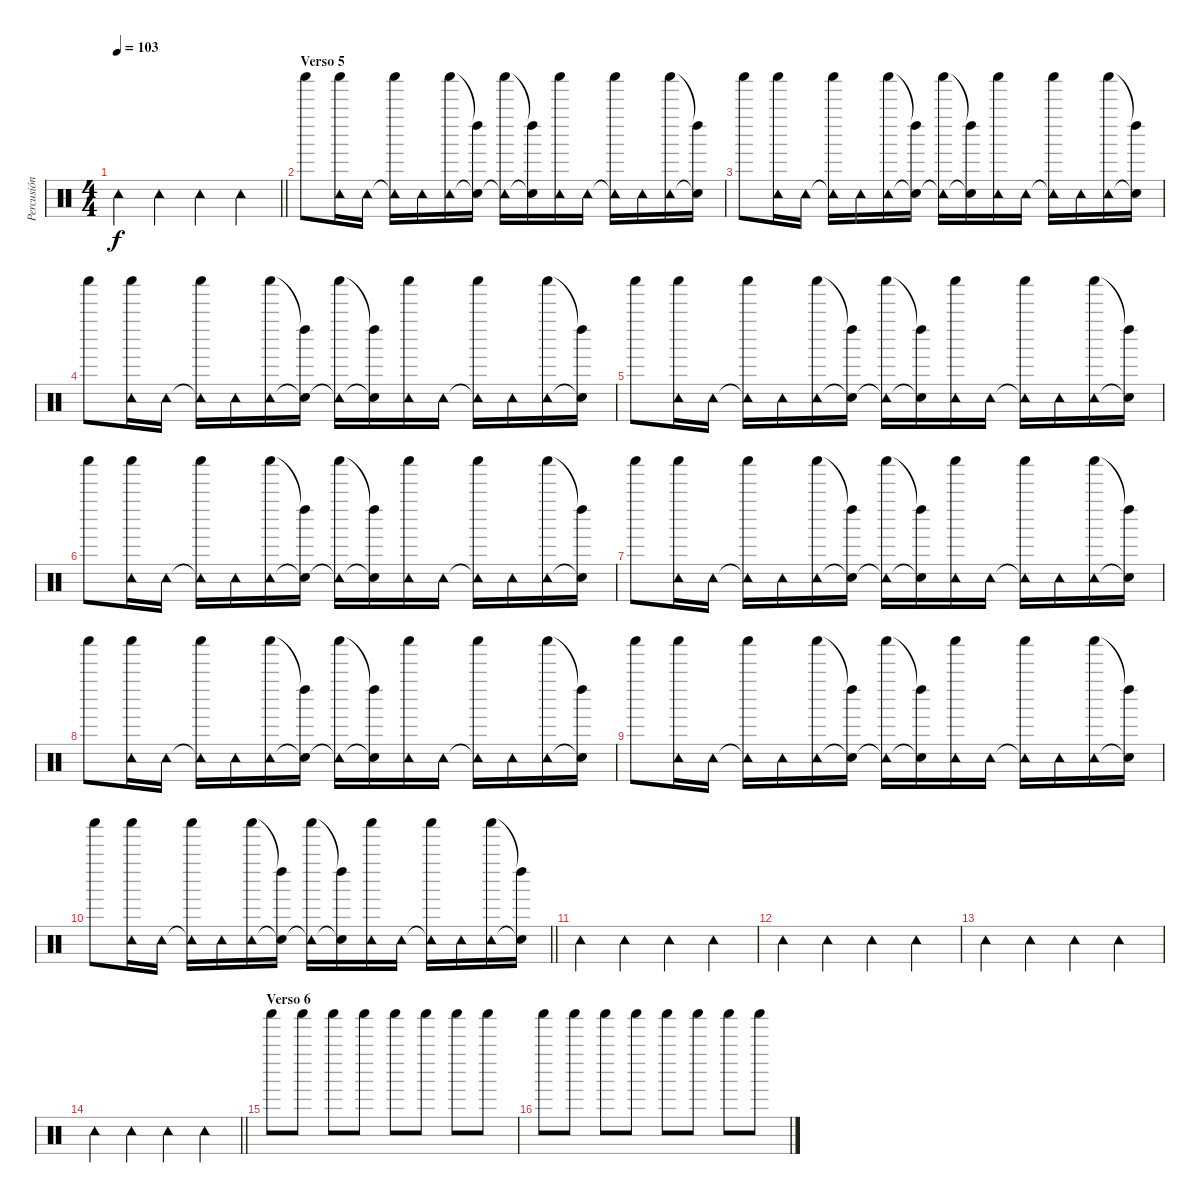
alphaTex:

\track ("Percusión" "Percusión") {instrument percussion}
\staff {score}
\articulation defaults
\ts (4 4)
\tempo 103
\clef neutral
\barLineRight lightlight
\ks c "Tambourine (hit)".4{dy f} "Tambourine (hit)".4 "Tambourine (hit)".4 "Tambourine (hit)".4
|
\section ("" "Verso 5")
"Shaker (hit)".8 ("Tambourine (hit)" "Shaker (hit)").16 "Tambourine (hit)".16 ("Tambourine (hit)"{t} "Shaker (hit)").16 "Tambourine (hit)".16 ("Tambourine (hit)" "Shaker (hit)").16 ("Snare (hit)"{t} "Left Maraca (hit)"{t}).16 ("Tambourine (hit)"{t} "Shaker (hit)").16 ("Snare (hit)"{t} "Left Maraca (hit)"{t}).16 ("Tambourine (hit)" "Shaker (hit)").16 "Tambourine (hit)".16 ("Tambourine (hit)"{t} "Shaker (hit)").16 "Tambourine (hit)".16 ("Tambourine (hit)" "Shaker (hit)").16 ("Snare (hit)"{t} "Left Maraca (hit)"{t}).16 |
"Shaker (hit)".8 ("Tambourine (hit)" "Shaker (hit)").16 "Tambourine (hit)".16 ("Tambourine (hit)"{t} "Shaker (hit)").16 "Tambourine (hit)".16 ("Tambourine (hit)" "Shaker (hit)").16 ("Snare (hit)"{t} "Left Maraca (hit)"{t}).16 ("Tambourine (hit)"{t} "Shaker (hit)").16 ("Snare (hit)"{t} "Left Maraca (hit)"{t}).16 ("Tambourine (hit)" "Shaker (hit)").16 "Tambourine (hit)".16 ("Tambourine (hit)"{t} "Shaker (hit)").16 "Tambourine (hit)".16 ("Tambourine (hit)" "Shaker (hit)").16 ("Snare (hit)"{t} "Left Maraca (hit)"{t}).16 |
"Shaker (hit)".8 ("Tambourine (hit)" "Shaker (hit)").16 "Tambourine (hit)".16 ("Tambourine (hit)"{t} "Shaker (hit)").16 "Tambourine (hit)".16 ("Tambourine (hit)" "Shaker (hit)").16 ("Snare (hit)"{t} "Left Maraca (hit)"{t}).16 ("Tambourine (hit)"{t} "Shaker (hit)").16 ("Snare (hit)"{t} "Left Maraca (hit)"{t}).16 ("Tambourine (hit)" "Shaker (hit)").16 "Tambourine (hit)".16 ("Tambourine (hit)"{t} "Shaker (hit)").16 "Tambourine (hit)".16 ("Tambourine (hit)" "Shaker (hit)").16 ("Snare (hit)"{t} "Left Maraca (hit)"{t}).16 |
"Shaker (hit)".8 ("Tambourine (hit)" "Shaker (hit)").16 "Tambourine (hit)".16 ("Tambourine (hit)"{t} "Shaker (hit)").16 "Tambourine (hit)".16 ("Tambourine (hit)" "Shaker (hit)").16 ("Snare (hit)"{t} "Left Maraca (hit)"{t}).16 ("Tambourine (hit)"{t} "Shaker (hit)").16 ("Snare (hit)"{t} "Left Maraca (hit)"{t}).16 ("Tambourine (hit)" "Shaker (hit)").16 "Tambourine (hit)".16 ("Tambourine (hit)"{t} "Shaker (hit)").16 "Tambourine (hit)".16 ("Tambourine (hit)" "Shaker (hit)").16 ("Snare (hit)"{t} "Left Maraca (hit)"{t}).16 |
"Shaker (hit)".8 ("Tambourine (hit)" "Shaker (hit)").16 "Tambourine (hit)".16 ("Tambourine (hit)"{t} "Shaker (hit)").16 "Tambourine (hit)".16 ("Tambourine (hit)" "Shaker (hit)").16 ("Snare (hit)"{t} "Left Maraca (hit)"{t}).16 ("Tambourine (hit)"{t} "Shaker (hit)").16 ("Snare (hit)"{t} "Left Maraca (hit)"{t}).16 ("Tambourine (hit)" "Shaker (hit)").16 "Tambourine (hit)".16 ("Tambourine (hit)"{t} "Shaker (hit)").16 "Tambourine (hit)".16 ("Tambourine (hit)" "Shaker (hit)").16 ("Snare (hit)"{t} "Left Maraca (hit)"{t}).16 |
"Shaker (hit)".8 ("Tambourine (hit)" "Shaker (hit)").16 "Tambourine (hit)".16 ("Tambourine (hit)"{t} "Shaker (hit)").16 "Tambourine (hit)".16 ("Tambourine (hit)" "Shaker (hit)").16 ("Snare (hit)"{t} "Left Maraca (hit)"{t}).16 ("Tambourine (hit)"{t} "Shaker (hit)").16 ("Snare (hit)"{t} "Left Maraca (hit)"{t}).16 ("Tambourine (hit)" "Shaker (hit)").16 "Tambourine (hit)".16 ("Tambourine (hit)"{t} "Shaker (hit)").16 "Tambourine (hit)".16 ("Tambourine (hit)" "Shaker (hit)").16 ("Snare (hit)"{t} "Left Maraca (hit)"{t}).16 |
"Shaker (hit)".8 ("Tambourine (hit)" "Shaker (hit)").16 "Tambourine (hit)".16 ("Tambourine (hit)"{t} "Shaker (hit)").16 "Tambourine (hit)".16 ("Tambourine (hit)" "Shaker (hit)").16 ("Snare (hit)"{t} "Left Maraca (hit)"{t}).16 ("Tambourine (hit)"{t} "Shaker (hit)").16 ("Snare (hit)"{t} "Left Maraca (hit)"{t}).16 ("Tambourine (hit)" "Shaker (hit)").16 "Tambourine (hit)".16 ("Tambourine (hit)"{t} "Shaker (hit)").16 "Tambourine (hit)".16 ("Tambourine (hit)" "Shaker (hit)").16 ("Snare (hit)"{t} "Left Maraca (hit)"{t}).16 |
"Shaker (hit)".8 ("Tambourine (hit)" "Shaker (hit)").16 "Tambourine (hit)".16 ("Tambourine (hit)"{t} "Shaker (hit)").16 "Tambourine (hit)".16 ("Tambourine (hit)" "Shaker (hit)").16 ("Snare (hit)"{t} "Left Maraca (hit)"{t}).16 ("Tambourine (hit)"{t} "Shaker (hit)").16 ("Snare (hit)"{t} "Left Maraca (hit)"{t}).16 ("Tambourine (hit)" "Shaker (hit)").16 "Tambourine (hit)".16 ("Tambourine (hit)"{t} "Shaker (hit)").16 "Tambourine (hit)".16 ("Tambourine (hit)" "Shaker (hit)").16 ("Snare (hit)"{t} "Left Maraca (hit)"{t}).16 |
\barLineRight lightlight "Shaker (hit)".8
("Tambourine (hit)" "Shaker (hit)").16 "Tambourine (hit)".16 ("Tambourine (hit)"{t} "Shaker (hit)").16 "Tambourine (hit)".16 ("Tambourine (hit)" "Shaker (hit)").16 ("Snare (hit)"{t} "Left Maraca (hit)"{t}).16 ("Tambourine (hit)"{t} "Shaker (hit)").16 ("Snare (hit)"{t} "Left Maraca (hit)"{t}).16 ("Tambourine (hit)" "Shaker (hit)").16 "Tambourine (hit)".16 ("Tambourine (hit)"{t} "Shaker (hit)").16 "Tambourine (hit)".16 ("Tambourine (hit)" "Shaker (hit)").16 ("Snare (hit)"{t} "Left Maraca (hit)"{t}).16 |
\section ("" "")
"Tambourine (hit)".4 "Tambourine (hit)".4 "Tambourine (hit)".4 "Tambourine (hit)".4 |
"Tambourine (hit)".4 "Tambourine (hit)".4 "Tambourine (hit)".4 "Tambourine (hit)".4 |
"Tambourine (hit)".4 "Tambourine (hit)".4 "Tambourine (hit)".4 "Tambourine (hit)".4 |
\barLineRight lightlight "Tambourine (hit)".4 "Tambourine (hit)".4 "Tambourine (hit)".4 "Tambourine (hit)".4
|
\section ("" "Verso 6")
"Shaker (hit)".8 "Shaker (hit)".8 "Shaker (hit)".8 "Shaker (hit)".8 "Shaker (hit)".8 "Shaker (hit)".8 "Shaker (hit)".8 "Shaker (hit)".8 |
"Shaker (hit)".8 "Shaker (hit)".8 "Shaker (hit)".8 "Shaker (hit)".8 "Shaker (hit)".8 "Shaker (hit)".8 "Shaker (hit)".8 "Shaker (hit)".8
